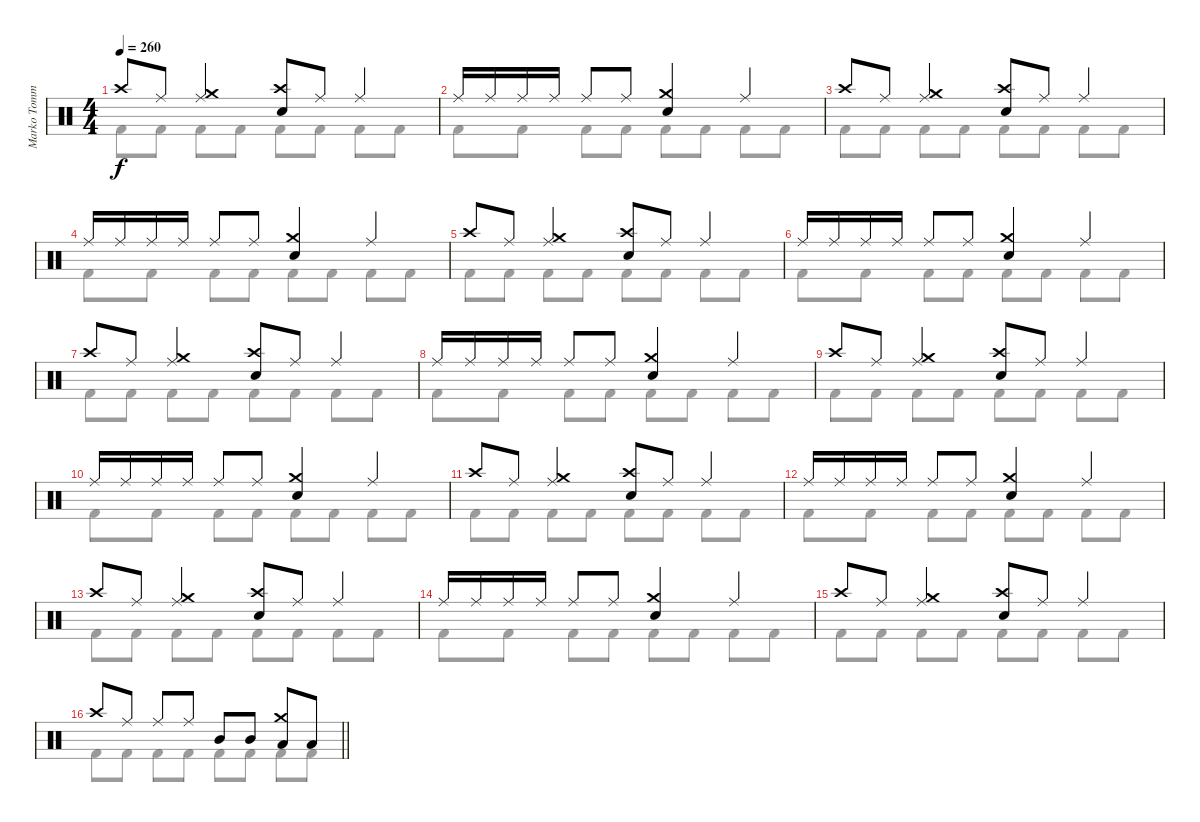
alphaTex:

\track ("Marko Tommila (drums)" "Marko Tomm") {instrument percussion}
\staff {score}
\articulation defaults
\voice
\ts (4 4)
\tempo 260
\clef neutral
\ks aminor "Crash high (hit)".8{dy f} "Ride (middle)".8
("Ride (middle)" "Crash medium (hit)").4 ("Crash high (hit)" "Electric Snare (hit)").8 "Ride (middle)".8 "Ride (middle)".4 |
"Ride (middle)".16 "Ride (middle)".16 "Ride (middle)".16 "Ride (middle)".16 "Ride (middle)".8 "Ride (middle)".8 ("Crash medium (hit)" "Electric Snare (hit)").4 "Ride (middle)".4 |
"Crash high (hit)".8 "Ride (middle)".8 ("Ride (middle)" "Crash medium (hit)").4 ("Crash high (hit)" "Electric Snare (hit)").8 "Ride (middle)".8 "Ride (middle)".4 |
"Ride (middle)".16 "Ride (middle)".16 "Ride (middle)".16 "Ride (middle)".16 "Ride (middle)".8 "Ride (middle)".8 ("Crash medium (hit)" "Electric Snare (hit)").4 "Ride (middle)".4 |
"Crash high (hit)".8 "Ride (middle)".8 ("Ride (middle)" "Crash medium (hit)").4 ("Crash high (hit)" "Electric Snare (hit)").8 "Ride (middle)".8 "Ride (middle)".4 |
"Ride (middle)".16 "Ride (middle)".16 "Ride (middle)".16 "Ride (middle)".16 "Ride (middle)".8 "Ride (middle)".8 ("Crash medium (hit)" "Electric Snare (hit)").4 "Ride (middle)".4 |
"Crash high (hit)".8 "Ride (middle)".8 ("Ride (middle)" "Crash medium (hit)").4 ("Crash high (hit)" "Electric Snare (hit)").8 "Ride (middle)".8 "Ride (middle)".4 |
"Ride (middle)".16 "Ride (middle)".16 "Ride (middle)".16 "Ride (middle)".16 "Ride (middle)".8 "Ride (middle)".8 ("Crash medium (hit)" "Electric Snare (hit)").4 "Ride (middle)".4 |
"Crash high (hit)".8 "Ride (middle)".8 ("Ride (middle)" "Crash medium (hit)").4 ("Crash high (hit)" "Electric Snare (hit)").8 "Ride (middle)".8 "Ride (middle)".4 |
"Ride (middle)".16 "Ride (middle)".16 "Ride (middle)".16 "Ride (middle)".16 "Ride (middle)".8 "Ride (middle)".8 ("Crash medium (hit)" "Electric Snare (hit)").4 "Ride (middle)".4 |
"Crash high (hit)".8 "Ride (middle)".8 ("Ride (middle)" "Crash medium (hit)").4 ("Crash high (hit)" "Electric Snare (hit)").8 "Ride (middle)".8 "Ride (middle)".4 |
"Ride (middle)".16 "Ride (middle)".16 "Ride (middle)".16 "Ride (middle)".16 "Ride (middle)".8 "Ride (middle)".8 ("Crash medium (hit)" "Electric Snare (hit)").4 "Ride (middle)".4 |
"Crash high (hit)".8 "Ride (middle)".8 ("Ride (middle)" "Crash medium (hit)").4 ("Crash high (hit)" "Electric Snare (hit)").8 "Ride (middle)".8 "Ride (middle)".4 |
"Ride (middle)".16 "Ride (middle)".16 "Ride (middle)".16 "Ride (middle)".16 "Ride (middle)".8 "Ride (middle)".8 ("Crash medium (hit)" "Electric Snare (hit)").4 "Ride (middle)".4 |
"Crash high (hit)".8 "Ride (middle)".8 ("Ride (middle)" "Crash medium (hit)").4 ("Crash high (hit)" "Electric Snare (hit)").8 "Ride (middle)".8 "Ride (middle)".4 |
\barLineRight lightlight "Crash high (hit)".8 "Ride (middle)".8 "Ride (middle)".8 "Ride (middle)".8 "Mid Tom (hit)".8 "Mid Tom (hit)".8
("Low Tom (hit)" "Crash medium (hit)").8 "Low Tom (hit)".8
\voice
\clef neutral
\ottava regular
\simile none
\ks aminor "Kick (hit) 2".8{dy f} "Kick (hit) 2".8 "Kick (hit) 2".8 "Kick (hit) 2".8 "Kick (hit) 2".8 "Kick (hit) 2".8 "Kick (hit) 2".8 "Kick (hit) 2".8
|
"Kick (hit) 2".8 "Kick (hit) 2".8 "Kick (hit) 2".8 "Kick (hit) 2".8 "Kick (hit) 2".8 "Kick (hit) 2".8 "Kick (hit) 2".8 "Kick (hit) 2".8 |
"Kick (hit) 2".8 "Kick (hit) 2".8 "Kick (hit) 2".8 "Kick (hit) 2".8 "Kick (hit) 2".8 "Kick (hit) 2".8 "Kick (hit) 2".8 "Kick (hit) 2".8 |
"Kick (hit) 2".8 "Kick (hit) 2".8 "Kick (hit) 2".8 "Kick (hit) 2".8 "Kick (hit) 2".8 "Kick (hit) 2".8 "Kick (hit) 2".8 "Kick (hit) 2".8 |
"Kick (hit) 2".8 "Kick (hit) 2".8 "Kick (hit) 2".8 "Kick (hit) 2".8 "Kick (hit) 2".8 "Kick (hit) 2".8 "Kick (hit) 2".8 "Kick (hit) 2".8 |
"Kick (hit) 2".8 "Kick (hit) 2".8 "Kick (hit) 2".8 "Kick (hit) 2".8 "Kick (hit) 2".8 "Kick (hit) 2".8 "Kick (hit) 2".8 "Kick (hit) 2".8 |
"Kick (hit) 2".8 "Kick (hit) 2".8 "Kick (hit) 2".8 "Kick (hit) 2".8 "Kick (hit) 2".8 "Kick (hit) 2".8 "Kick (hit) 2".8 "Kick (hit) 2".8 |
"Kick (hit) 2".8 "Kick (hit) 2".8 "Kick (hit) 2".8 "Kick (hit) 2".8 "Kick (hit) 2".8 "Kick (hit) 2".8 "Kick (hit) 2".8 "Kick (hit) 2".8 |
"Kick (hit) 2".8 "Kick (hit) 2".8 "Kick (hit) 2".8 "Kick (hit) 2".8 "Kick (hit) 2".8 "Kick (hit) 2".8 "Kick (hit) 2".8 "Kick (hit) 2".8 |
"Kick (hit) 2".8 "Kick (hit) 2".8 "Kick (hit) 2".8 "Kick (hit) 2".8 "Kick (hit) 2".8 "Kick (hit) 2".8 "Kick (hit) 2".8 "Kick (hit) 2".8 |
"Kick (hit) 2".8 "Kick (hit) 2".8 "Kick (hit) 2".8 "Kick (hit) 2".8 "Kick (hit) 2".8 "Kick (hit) 2".8 "Kick (hit) 2".8 "Kick (hit) 2".8 |
"Kick (hit) 2".8 "Kick (hit) 2".8 "Kick (hit) 2".8 "Kick (hit) 2".8 "Kick (hit) 2".8 "Kick (hit) 2".8 "Kick (hit) 2".8 "Kick (hit) 2".8 |
"Kick (hit) 2".8 "Kick (hit) 2".8 "Kick (hit) 2".8 "Kick (hit) 2".8 "Kick (hit) 2".8 "Kick (hit) 2".8 "Kick (hit) 2".8 "Kick (hit) 2".8 |
"Kick (hit) 2".8 "Kick (hit) 2".8 "Kick (hit) 2".8 "Kick (hit) 2".8 "Kick (hit) 2".8 "Kick (hit) 2".8 "Kick (hit) 2".8 "Kick (hit) 2".8 |
"Kick (hit) 2".8 "Kick (hit) 2".8 "Kick (hit) 2".8 "Kick (hit) 2".8 "Kick (hit) 2".8 "Kick (hit) 2".8 "Kick (hit) 2".8 "Kick (hit) 2".8 |
\barLineRight lightlight "Kick (hit) 2".8 "Kick (hit) 2".8 "Kick (hit) 2".8 "Kick (hit) 2".8 "Kick (hit) 2".8 "Kick (hit) 2".8 "Kick (hit) 2".8 "Kick (hit) 2".8
